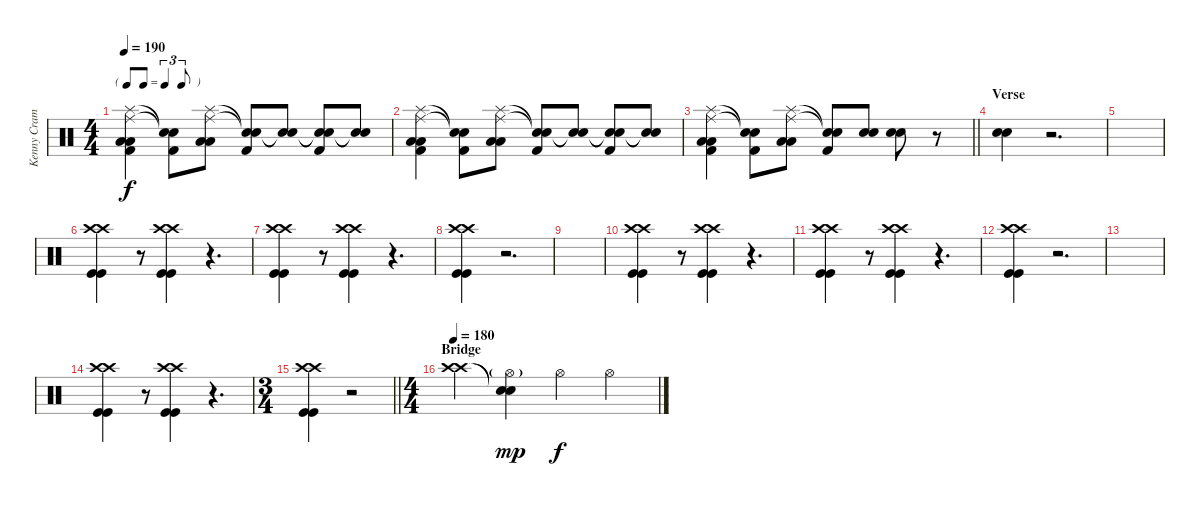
\track ("Kenny Cramme" "Kenny Cram") {instrument percussion}
\staff {score}
\articulation defaults
\ts (4 4)
\tf triplet8th
\tempo 190
\clef neutral
\ks c
("Ride (middle)" "Splash (hit)" "Low Floor Tom (hit)" "Low Floor Tom (hit)" "Kick (hit) 2").4{dy f} ("Snare (hit)"{t} "Snare (hit)"{t} "Kick (hit) 2").8 ("Ride (middle)" "Splash (hit)" "Low Floor Tom (hit)" "Low Floor Tom (hit)").8 ("Snare (hit)"{t} "Snare (hit)"{t} "Kick (hit) 2").8 ("Snare (hit)"{t} "Snare (hit)"{t}).8 ("Snare (hit)"{t} "Snare (hit)"{t} "Kick (hit) 2").8 ("Snare (hit)"{t} "Snare (hit)"{t}).8 |
("Ride (middle)" "Splash (hit)" "Low Floor Tom (hit)" "Low Floor Tom (hit)" "Kick (hit) 2").4 ("Snare (hit)"{t} "Snare (hit)"{t} "Kick (hit) 2").8 ("Ride (middle)" "Splash (hit)" "Low Floor Tom (hit)" "Low Floor Tom (hit)").8 ("Snare (hit)"{t} "Snare (hit)"{t} "Kick (hit) 2").8 ("Snare (hit)"{t} "Snare (hit)"{t}).8 ("Snare (hit)"{t} "Snare (hit)"{t} "Kick (hit) 2").8 ("Snare (hit)"{t} "Snare (hit)"{t}).8 |
\barLineRight lightlight
("Ride (middle)" "Splash (hit)" "Low Floor Tom (hit)" "Low Floor Tom (hit)" "Kick (hit) 2").4 ("Snare (hit)"{t} "Snare (hit)"{t} "Kick (hit) 2").8 ("Ride (middle)" "Splash (hit)" "Low Floor Tom (hit)" "Low Floor Tom (hit)").8 ("Snare (hit)"{t} "Snare (hit)"{t} "Kick (hit) 2").8 ("Snare (hit) 2" "Snare (hit) 2").8 ("Snare (hit) 2" "Snare (hit) 2").8 r.8 |
\section ("" "Verse")
("Snare (hit) 2" "Snare (hit) 2").4 r.2{d} |
|
("Crash high (hit)" "Crash high (hit)" "Kick (hit)" "Kick (hit)").4 r.8 ("Crash high (hit)" "Crash high (hit)" "Kick (hit)" "Kick (hit)").4 r.4{d} |
("Crash high (hit)" "Crash high (hit)" "Kick (hit)" "Kick (hit)").4 r.8 ("Crash high (hit)" "Crash high (hit)" "Kick (hit)" "Kick (hit)").4 r.4{d} |
("Crash high (hit)" "Crash high (hit)" "Kick (hit)" "Kick (hit)").4 r.2{d} |
|
("Crash high (hit)" "Crash high (hit)" "Kick (hit)" "Kick (hit)").4 r.8 ("Crash high (hit)" "Crash high (hit)" "Kick (hit)" "Kick (hit)").4 r.4{d} |
("Crash high (hit)" "Crash high (hit)" "Kick (hit)" "Kick (hit)").4 r.8 ("Crash high (hit)" "Crash high (hit)" "Kick (hit)" "Kick (hit)").4 r.4{d} |
("Crash high (hit)" "Crash high (hit)" "Kick (hit)" "Kick (hit)").4 r.2{d} |
|
("Crash high (hit)" "Crash high (hit)" "Kick (hit)" "Kick (hit)").4 r.8 ("Crash high (hit)" "Crash high (hit)" "Kick (hit)" "Kick (hit)").4 r.4{d} |
\ts (3 4)
\barLineRight lightlight
("Crash high (hit)" "Crash high (hit)" "Kick (hit)" "Kick (hit)").4 r.2 |
\ts (4 4)
\section ("" "Bridge")
\tempo 180
("Crash high (hit)" "Crash high (hit)").4 ("Snare (hit)"{t} "Snare (hit)"{t} "Hi-Hat (open)"{g}).4{dy mp} "Hi-Hat (open)".4{dy f} "Hi-Hat (open)".4
